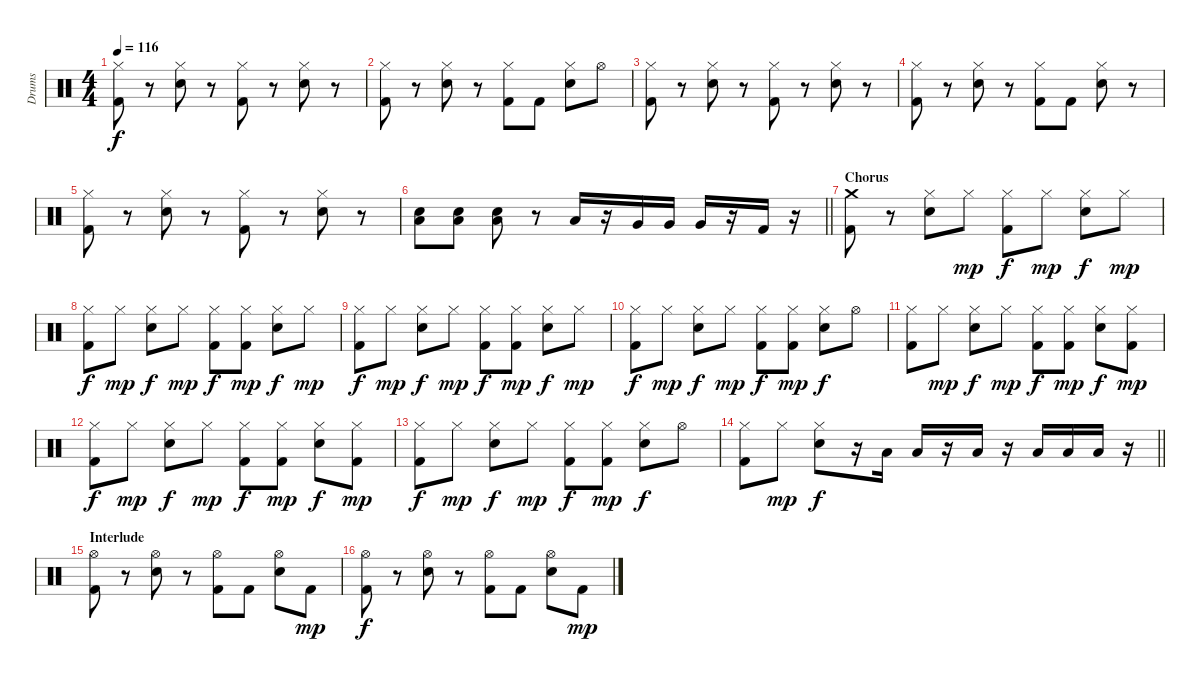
\track ("Drums" "Drums") {instrument percussion}
\staff {score}
\articulation defaults
\ts (4 4)
\tempo 116
\clef neutral
\ks c
("Hi-Hat (closed)" "Kick (hit) 2").8{dy f} r.8 ("Hi-Hat (closed)" "Snare (hit) 2").8 r.8 ("Hi-Hat (closed)" "Kick (hit) 2").8 r.8 ("Hi-Hat (closed)" "Snare (hit) 2").8 r.8 |
("Hi-Hat (closed)" "Kick (hit) 2").8 r.8 ("Hi-Hat (closed)" "Snare (hit) 2").8 r.8 ("Hi-Hat (closed)" "Kick (hit) 2").8 "Kick (hit) 2".8 ("Hi-Hat (closed)" "Snare (hit) 2").8 "Hi-Hat (open)".8 |
("Hi-Hat (closed)" "Kick (hit) 2").8 r.8 ("Hi-Hat (closed)" "Snare (hit) 2").8 r.8 ("Hi-Hat (closed)" "Kick (hit) 2").8 r.8 ("Hi-Hat (closed)" "Snare (hit) 2").8 r.8 |
("Hi-Hat (closed)" "Kick (hit) 2").8 r.8 ("Hi-Hat (closed)" "Snare (hit) 2").8 r.8 ("Hi-Hat (closed)" "Kick (hit) 2").8 "Kick (hit) 2".8 ("Hi-Hat (closed)" "Snare (hit) 2").8 r.8 |
("Hi-Hat (closed)" "Kick (hit) 2").8 r.8 ("Hi-Hat (closed)" "Snare (hit) 2").8 r.8 ("Hi-Hat (closed)" "Kick (hit) 2").8 r.8 ("Hi-Hat (closed)" "Snare (hit) 2").8 r.8 |
\barLineRight lightlight
("Snare (hit) 2" "Low Floor Tom (hit)").8 ("Snare (hit) 2" "Low Floor Tom (hit)").8 ("Snare (hit) 2" "Low Floor Tom (hit)").8 r.8 "Low Tom (hit)".16 r.16 "Very Low Tom (hit)".16 "Very Low Tom (hit)".16 "Very Low Tom (hit)".16 r.16 "Kick (hit) 2".16 r.16 |
\section ("" "Chorus")
("Crash medium (hit)" "Kick (hit) 2").8 r.8 ("Hi-Hat (closed)" "Snare (hit) 2").8 "Hi-Hat (closed)".8{dy mp} ("Hi-Hat (closed)" "Kick (hit) 2").8{dy f} "Hi-Hat (closed)".8{dy mp} ("Hi-Hat (closed)" "Snare (hit) 2").8{dy f} "Hi-Hat (closed)".8{dy mp} |
("Hi-Hat (closed)" "Kick (hit) 2").8{dy f} "Hi-Hat (closed)".8{dy mp} ("Hi-Hat (closed)" "Snare (hit) 2").8{dy f} "Hi-Hat (closed)".8{dy mp} ("Hi-Hat (closed)" "Kick (hit) 2").8{dy f} ("Hi-Hat (closed)" "Kick (hit) 2").8{dy mp} ("Hi-Hat (closed)" "Snare (hit) 2").8{dy f} "Hi-Hat (closed)".8{dy mp} |
("Hi-Hat (closed)" "Kick (hit) 2").8{dy f} "Hi-Hat (closed)".8{dy mp} ("Hi-Hat (closed)" "Snare (hit) 2").8{dy f} "Hi-Hat (closed)".8{dy mp} ("Hi-Hat (closed)" "Kick (hit) 2").8{dy f} ("Hi-Hat (closed)" "Kick (hit) 2").8{dy mp} ("Hi-Hat (closed)" "Snare (hit) 2").8{dy f} "Hi-Hat (closed)".8{dy mp} |
("Hi-Hat (closed)" "Kick (hit) 2").8{dy f} "Hi-Hat (closed)".8{dy mp} ("Hi-Hat (closed)" "Snare (hit) 2").8{dy f} "Hi-Hat (closed)".8{dy mp} ("Hi-Hat (closed)" "Kick (hit) 2").8{dy f} ("Hi-Hat (closed)" "Kick (hit) 2").8{dy mp} ("Hi-Hat (closed)" "Snare (hit) 2").8{dy f} "Hi-Hat (open)".8 |
("Hi-Hat (closed)" "Kick (hit) 2").8 "Hi-Hat (closed)".8{dy mp} ("Hi-Hat (closed)" "Snare (hit) 2").8{dy f} "Hi-Hat (closed)".8{dy mp} ("Hi-Hat (closed)" "Kick (hit) 2").8{dy f} ("Hi-Hat (closed)" "Kick (hit) 2").8{dy mp} ("Hi-Hat (closed)" "Snare (hit) 2").8{dy f} ("Hi-Hat (closed)" "Kick (hit) 2").8{dy mp} |
("Hi-Hat (closed)" "Kick (hit) 2").8{dy f} "Hi-Hat (closed)".8{dy mp} ("Hi-Hat (closed)" "Snare (hit) 2").8{dy f} "Hi-Hat (closed)".8{dy mp} ("Hi-Hat (closed)" "Kick (hit) 2").8{dy f} ("Hi-Hat (closed)" "Kick (hit) 2").8{dy mp} ("Hi-Hat (closed)" "Snare (hit) 2").8{dy f} ("Hi-Hat (closed)" "Kick (hit) 2").8{dy mp} |
("Hi-Hat (closed)" "Kick (hit) 2").8{dy f} "Hi-Hat (closed)".8{dy mp} ("Hi-Hat (closed)" "Snare (hit) 2").8{dy f} "Hi-Hat (closed)".8{dy mp} ("Hi-Hat (closed)" "Kick (hit) 2").8{dy f} ("Hi-Hat (closed)" "Kick (hit) 2").8{dy mp} ("Hi-Hat (closed)" "Snare (hit) 2").8{dy f} "Hi-Hat (open)".8 |
\barLineRight lightlight
("Hi-Hat (closed)" "Kick (hit) 2").8 "Hi-Hat (closed)".8{dy mp} ("Hi-Hat (closed)" "Snare (hit) 2").8{dy f} r.16 "Low Tom (hit)".16 "Low Tom (hit)".16 r.16 "Low Floor Tom (hit)".16 r.16 "Low Tom (hit)".16 "Low Tom (hit)".16 "Low Floor Tom (hit)".16 r.16 |
\section ("" "Interlude")
("Hi-Hat (open)" "Kick (hit) 2").8 r.8 ("Hi-Hat (open)" "Snare (hit) 2").8 r.8 ("Hi-Hat (open)" "Kick (hit) 2").8 "Kick (hit) 2".8 ("Hi-Hat (open)" "Snare (hit) 2").8 "Kick (hit) 2".8{dy mp} |
("Hi-Hat (open)" "Kick (hit) 2").8{dy f} r.8 ("Hi-Hat (open)" "Snare (hit) 2").8 r.8 ("Hi-Hat (open)" "Kick (hit) 2").8 "Kick (hit) 2".8 ("Hi-Hat (open)" "Snare (hit) 2").8 "Kick (hit) 2".8{dy mp}
